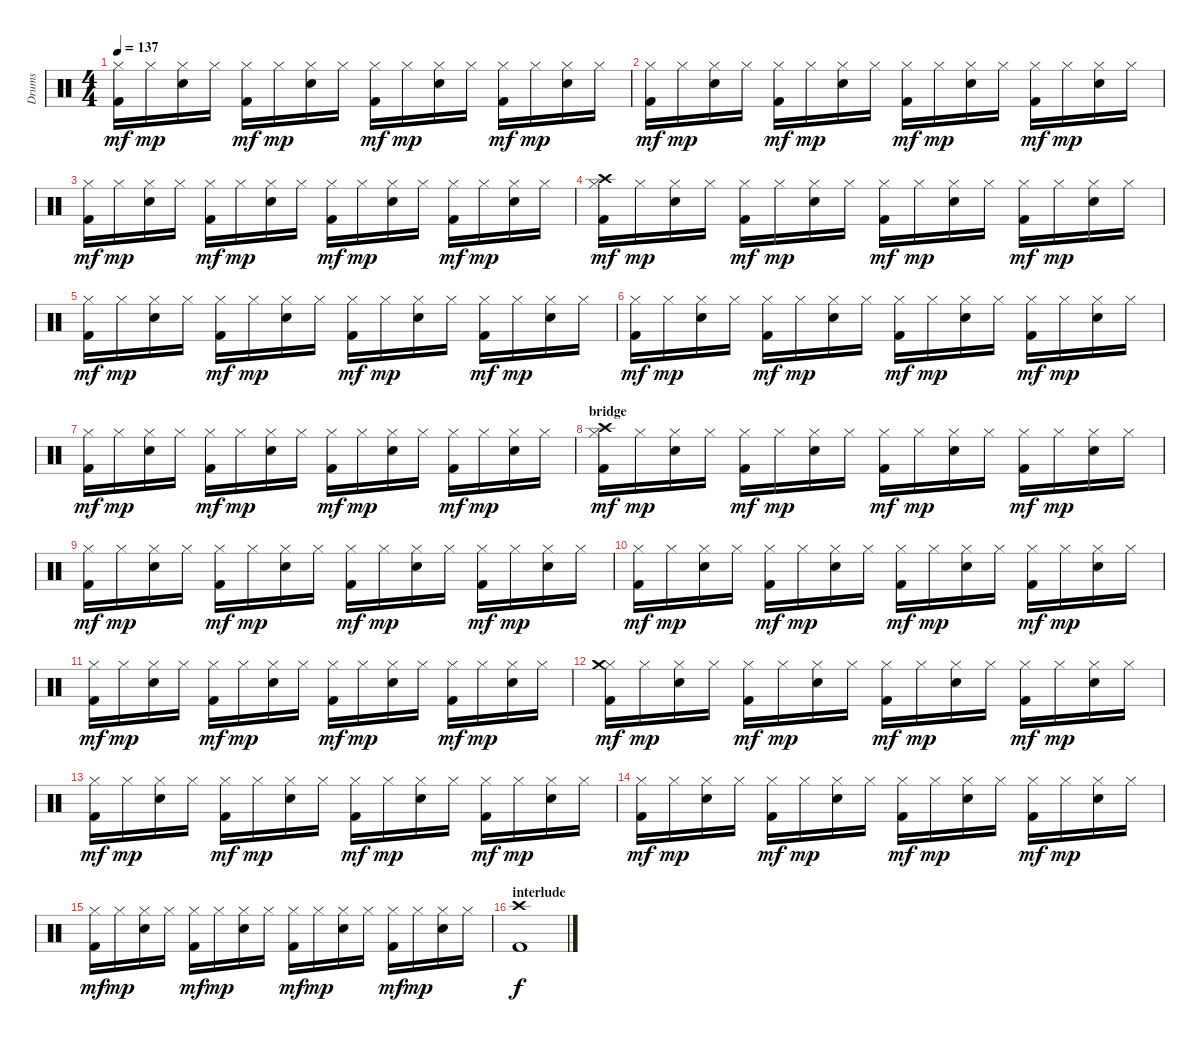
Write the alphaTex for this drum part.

\track ("Drums" "Drums") {instrument percussion}
\staff {score}
\articulation defaults
\ts (4 4)
\tempo 137
\clef neutral
\ks c
("Hi-Hat (closed)" "Kick (hit) 2").16{dy mf} "Hi-Hat (closed)".16{dy mp} ("Hi-Hat (closed)" "Snare (hit) 2").16 "Hi-Hat (closed)".16 ("Hi-Hat (closed)" "Kick (hit) 2").16{dy mf} "Hi-Hat (closed)".16{dy mp} ("Hi-Hat (closed)" "Snare (hit) 2").16 "Hi-Hat (closed)".16 ("Hi-Hat (closed)" "Kick (hit) 2").16{dy mf} "Hi-Hat (closed)".16{dy mp} ("Hi-Hat (closed)" "Snare (hit) 2").16 "Hi-Hat (closed)".16 ("Hi-Hat (closed)" "Kick (hit) 2").16{dy mf} "Hi-Hat (closed)".16{dy mp} ("Hi-Hat (closed)" "Snare (hit) 2").16 "Hi-Hat (closed)".16 |
("Hi-Hat (closed)" "Kick (hit) 2").16{dy mf} "Hi-Hat (closed)".16{dy mp} ("Hi-Hat (closed)" "Snare (hit) 2").16 "Hi-Hat (closed)".16 ("Hi-Hat (closed)" "Kick (hit) 2").16{dy mf} "Hi-Hat (closed)".16{dy mp} ("Hi-Hat (closed)" "Snare (hit) 2").16 "Hi-Hat (closed)".16 ("Hi-Hat (closed)" "Kick (hit) 2").16{dy mf} "Hi-Hat (closed)".16{dy mp} ("Hi-Hat (closed)" "Snare (hit) 2").16 "Hi-Hat (closed)".16 ("Hi-Hat (closed)" "Kick (hit) 2").16{dy mf} "Hi-Hat (closed)".16{dy mp} ("Hi-Hat (closed)" "Snare (hit) 2").16 "Hi-Hat (closed)".16 |
("Hi-Hat (closed)" "Kick (hit) 2").16{dy mf} "Hi-Hat (closed)".16{dy mp} ("Hi-Hat (closed)" "Snare (hit) 2").16 "Hi-Hat (closed)".16 ("Hi-Hat (closed)" "Kick (hit) 2").16{dy mf} "Hi-Hat (closed)".16{dy mp} ("Hi-Hat (closed)" "Snare (hit) 2").16 "Hi-Hat (closed)".16 ("Hi-Hat (closed)" "Kick (hit) 2").16{dy mf} "Hi-Hat (closed)".16{dy mp} ("Hi-Hat (closed)" "Snare (hit) 2").16 "Hi-Hat (closed)".16 ("Hi-Hat (closed)" "Kick (hit) 2").16{dy mf} "Hi-Hat (closed)".16{dy mp} ("Hi-Hat (closed)" "Snare (hit) 2").16 "Hi-Hat (closed)".16 |
("Hi-Hat (closed)" "Crash high (hit)" "Kick (hit) 2").16{dy mf} "Hi-Hat (closed)".16{dy mp} ("Hi-Hat (closed)" "Snare (hit) 2").16 "Hi-Hat (closed)".16 ("Hi-Hat (closed)" "Kick (hit) 2").16{dy mf} "Hi-Hat (closed)".16{dy mp} ("Hi-Hat (closed)" "Snare (hit) 2").16 "Hi-Hat (closed)".16 ("Hi-Hat (closed)" "Kick (hit) 2").16{dy mf} "Hi-Hat (closed)".16{dy mp} ("Hi-Hat (closed)" "Snare (hit) 2").16 "Hi-Hat (closed)".16 ("Hi-Hat (closed)" "Kick (hit) 2").16{dy mf} "Hi-Hat (closed)".16{dy mp} ("Hi-Hat (closed)" "Snare (hit) 2").16 "Hi-Hat (closed)".16 |
("Hi-Hat (closed)" "Kick (hit) 2").16{dy mf} "Hi-Hat (closed)".16{dy mp} ("Hi-Hat (closed)" "Snare (hit) 2").16 "Hi-Hat (closed)".16 ("Hi-Hat (closed)" "Kick (hit) 2").16{dy mf} "Hi-Hat (closed)".16{dy mp} ("Hi-Hat (closed)" "Snare (hit) 2").16 "Hi-Hat (closed)".16 ("Hi-Hat (closed)" "Kick (hit) 2").16{dy mf} "Hi-Hat (closed)".16{dy mp} ("Hi-Hat (closed)" "Snare (hit) 2").16 "Hi-Hat (closed)".16 ("Hi-Hat (closed)" "Kick (hit) 2").16{dy mf} "Hi-Hat (closed)".16{dy mp} ("Hi-Hat (closed)" "Snare (hit) 2").16 "Hi-Hat (closed)".16 |
("Hi-Hat (closed)" "Kick (hit) 2").16{dy mf} "Hi-Hat (closed)".16{dy mp} ("Hi-Hat (closed)" "Snare (hit) 2").16 "Hi-Hat (closed)".16 ("Hi-Hat (closed)" "Kick (hit) 2").16{dy mf} "Hi-Hat (closed)".16{dy mp} ("Hi-Hat (closed)" "Snare (hit) 2").16 "Hi-Hat (closed)".16 ("Hi-Hat (closed)" "Kick (hit) 2").16{dy mf} "Hi-Hat (closed)".16{dy mp} ("Hi-Hat (closed)" "Snare (hit) 2").16 "Hi-Hat (closed)".16 ("Hi-Hat (closed)" "Kick (hit) 2").16{dy mf} "Hi-Hat (closed)".16{dy mp} ("Hi-Hat (closed)" "Snare (hit) 2").16 "Hi-Hat (closed)".16 |
("Hi-Hat (closed)" "Kick (hit) 2").16{dy mf} "Hi-Hat (closed)".16{dy mp} ("Hi-Hat (closed)" "Snare (hit) 2").16 "Hi-Hat (closed)".16 ("Hi-Hat (closed)" "Kick (hit) 2").16{dy mf} "Hi-Hat (closed)".16{dy mp} ("Hi-Hat (closed)" "Snare (hit) 2").16 "Hi-Hat (closed)".16 ("Hi-Hat (closed)" "Kick (hit) 2").16{dy mf} "Hi-Hat (closed)".16{dy mp} ("Hi-Hat (closed)" "Snare (hit) 2").16 "Hi-Hat (closed)".16 ("Hi-Hat (closed)" "Kick (hit) 2").16{dy mf} "Hi-Hat (closed)".16{dy mp} ("Hi-Hat (closed)" "Snare (hit) 2").16 "Hi-Hat (closed)".16 |
\section ("" "bridge")
("Hi-Hat (closed)" "Crash high (hit)" "Kick (hit) 2").16{dy mf} "Hi-Hat (closed)".16{dy mp} ("Hi-Hat (closed)" "Snare (hit) 2").16 "Hi-Hat (closed)".16 ("Hi-Hat (closed)" "Kick (hit) 2").16{dy mf} "Hi-Hat (closed)".16{dy mp} ("Hi-Hat (closed)" "Snare (hit) 2").16 "Hi-Hat (closed)".16 ("Hi-Hat (closed)" "Kick (hit) 2").16{dy mf} "Hi-Hat (closed)".16{dy mp} ("Hi-Hat (closed)" "Snare (hit) 2").16 "Hi-Hat (closed)".16 ("Hi-Hat (closed)" "Kick (hit) 2").16{dy mf} "Hi-Hat (closed)".16{dy mp} ("Hi-Hat (closed)" "Snare (hit) 2").16 "Hi-Hat (closed)".16 |
("Hi-Hat (closed)" "Kick (hit) 2").16{dy mf} "Hi-Hat (closed)".16{dy mp} ("Hi-Hat (closed)" "Snare (hit) 2").16 "Hi-Hat (closed)".16 ("Hi-Hat (closed)" "Kick (hit) 2").16{dy mf} "Hi-Hat (closed)".16{dy mp} ("Hi-Hat (closed)" "Snare (hit) 2").16 "Hi-Hat (closed)".16 ("Hi-Hat (closed)" "Kick (hit) 2").16{dy mf} "Hi-Hat (closed)".16{dy mp} ("Hi-Hat (closed)" "Snare (hit) 2").16 "Hi-Hat (closed)".16 ("Hi-Hat (closed)" "Kick (hit) 2").16{dy mf} "Hi-Hat (closed)".16{dy mp} ("Hi-Hat (closed)" "Snare (hit) 2").16 "Hi-Hat (closed)".16 |
("Hi-Hat (closed)" "Kick (hit) 2").16{dy mf} "Hi-Hat (closed)".16{dy mp} ("Hi-Hat (closed)" "Snare (hit) 2").16 "Hi-Hat (closed)".16 ("Hi-Hat (closed)" "Kick (hit) 2").16{dy mf} "Hi-Hat (closed)".16{dy mp} ("Hi-Hat (closed)" "Snare (hit) 2").16 "Hi-Hat (closed)".16 ("Hi-Hat (closed)" "Kick (hit) 2").16{dy mf} "Hi-Hat (closed)".16{dy mp} ("Hi-Hat (closed)" "Snare (hit) 2").16 "Hi-Hat (closed)".16 ("Hi-Hat (closed)" "Kick (hit) 2").16{dy mf} "Hi-Hat (closed)".16{dy mp} ("Hi-Hat (closed)" "Snare (hit) 2").16 "Hi-Hat (closed)".16 |
("Hi-Hat (closed)" "Kick (hit) 2").16{dy mf} "Hi-Hat (closed)".16{dy mp} ("Hi-Hat (closed)" "Snare (hit) 2").16 "Hi-Hat (closed)".16 ("Hi-Hat (closed)" "Kick (hit) 2").16{dy mf} "Hi-Hat (closed)".16{dy mp} ("Hi-Hat (closed)" "Snare (hit) 2").16 "Hi-Hat (closed)".16 ("Hi-Hat (closed)" "Kick (hit) 2").16{dy mf} "Hi-Hat (closed)".16{dy mp} ("Hi-Hat (closed)" "Snare (hit) 2").16 "Hi-Hat (closed)".16 ("Hi-Hat (closed)" "Kick (hit) 2").16{dy mf} "Hi-Hat (closed)".16{dy mp} ("Hi-Hat (closed)" "Snare (hit) 2").16 "Hi-Hat (closed)".16 |
("Hi-Hat (closed)" "Crash medium (hit)" "Kick (hit) 2").16{dy mf} "Hi-Hat (closed)".16{dy mp} ("Hi-Hat (closed)" "Snare (hit) 2").16 "Hi-Hat (closed)".16 ("Hi-Hat (closed)" "Kick (hit) 2").16{dy mf} "Hi-Hat (closed)".16{dy mp} ("Hi-Hat (closed)" "Snare (hit) 2").16 "Hi-Hat (closed)".16 ("Hi-Hat (closed)" "Kick (hit) 2").16{dy mf} "Hi-Hat (closed)".16{dy mp} ("Hi-Hat (closed)" "Snare (hit) 2").16 "Hi-Hat (closed)".16 ("Hi-Hat (closed)" "Kick (hit) 2").16{dy mf} "Hi-Hat (closed)".16{dy mp} ("Hi-Hat (closed)" "Snare (hit) 2").16 "Hi-Hat (closed)".16 |
("Hi-Hat (closed)" "Kick (hit) 2").16{dy mf} "Hi-Hat (closed)".16{dy mp} ("Hi-Hat (closed)" "Snare (hit) 2").16 "Hi-Hat (closed)".16 ("Hi-Hat (closed)" "Kick (hit) 2").16{dy mf} "Hi-Hat (closed)".16{dy mp} ("Hi-Hat (closed)" "Snare (hit) 2").16 "Hi-Hat (closed)".16 ("Hi-Hat (closed)" "Kick (hit) 2").16{dy mf} "Hi-Hat (closed)".16{dy mp} ("Hi-Hat (closed)" "Snare (hit) 2").16 "Hi-Hat (closed)".16 ("Hi-Hat (closed)" "Kick (hit) 2").16{dy mf} "Hi-Hat (closed)".16{dy mp} ("Hi-Hat (closed)" "Snare (hit) 2").16 "Hi-Hat (closed)".16 |
("Hi-Hat (closed)" "Kick (hit) 2").16{dy mf} "Hi-Hat (closed)".16{dy mp} ("Hi-Hat (closed)" "Snare (hit) 2").16 "Hi-Hat (closed)".16 ("Hi-Hat (closed)" "Kick (hit) 2").16{dy mf} "Hi-Hat (closed)".16{dy mp} ("Hi-Hat (closed)" "Snare (hit) 2").16 "Hi-Hat (closed)".16 ("Hi-Hat (closed)" "Kick (hit) 2").16{dy mf} "Hi-Hat (closed)".16{dy mp} ("Hi-Hat (closed)" "Snare (hit) 2").16 "Hi-Hat (closed)".16 ("Hi-Hat (closed)" "Kick (hit) 2").16{dy mf} "Hi-Hat (closed)".16{dy mp} ("Hi-Hat (closed)" "Snare (hit) 2").16 "Hi-Hat (closed)".16 |
("Hi-Hat (closed)" "Kick (hit) 2").16{dy mf} "Hi-Hat (closed)".16{dy mp} ("Hi-Hat (closed)" "Snare (hit) 2").16 "Hi-Hat (closed)".16 ("Hi-Hat (closed)" "Kick (hit) 2").16{dy mf} "Hi-Hat (closed)".16{dy mp} ("Hi-Hat (closed)" "Snare (hit) 2").16 "Hi-Hat (closed)".16 ("Hi-Hat (closed)" "Kick (hit) 2").16{dy mf} "Hi-Hat (closed)".16{dy mp} ("Hi-Hat (closed)" "Snare (hit) 2").16 "Hi-Hat (closed)".16 ("Hi-Hat (closed)" "Kick (hit) 2").16{dy mf} "Hi-Hat (closed)".16{dy mp} ("Hi-Hat (closed)" "Snare (hit) 2").16 "Hi-Hat (closed)".16 |
\section ("" "interlude")
("Crash high (hit)" "Kick (hit) 2").1{dy f}
